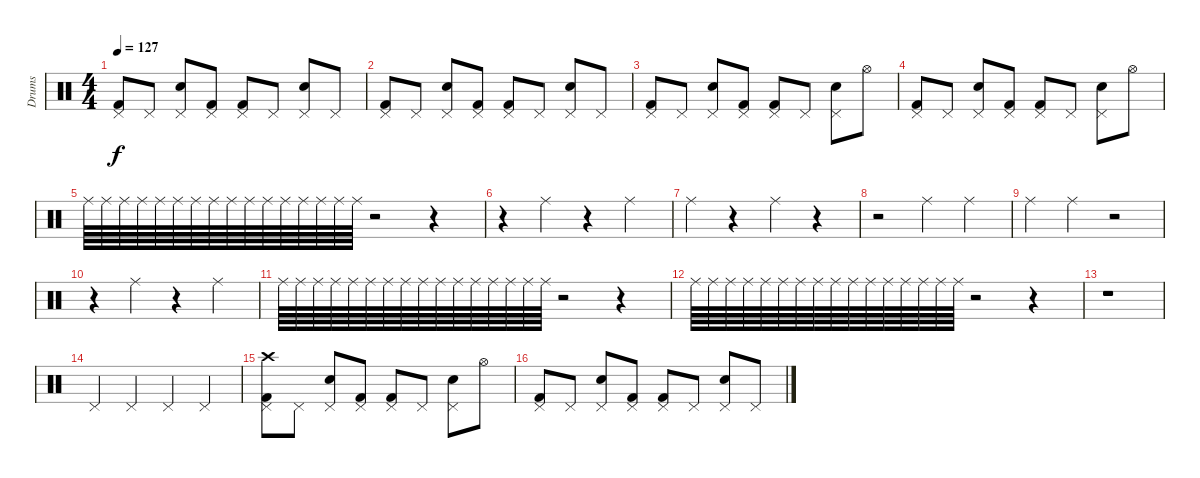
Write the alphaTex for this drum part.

\track ("Drums" "Drums") {instrument percussion}
\staff {score}
\articulation defaults
\ts (4 4)
\tempo 127
\clef neutral
\ks c
("Pedal Hi-Hat (hit)" "Kick (hit) 2").8{dy f} "Pedal Hi-Hat (hit)".8 ("Pedal Hi-Hat (hit)" "Snare (hit) 2").8 ("Pedal Hi-Hat (hit)" "Kick (hit) 2").8 ("Pedal Hi-Hat (hit)" "Kick (hit) 2").8 "Pedal Hi-Hat (hit)".8 ("Pedal Hi-Hat (hit)" "Snare (hit) 2").8 "Pedal Hi-Hat (hit)".8 |
("Pedal Hi-Hat (hit)" "Kick (hit) 2").8 "Pedal Hi-Hat (hit)".8 ("Pedal Hi-Hat (hit)" "Snare (hit) 2").8 ("Pedal Hi-Hat (hit)" "Kick (hit) 2").8 ("Pedal Hi-Hat (hit)" "Kick (hit) 2").8 "Pedal Hi-Hat (hit)".8 ("Pedal Hi-Hat (hit)" "Snare (hit) 2").8 "Pedal Hi-Hat (hit)".8 |
("Pedal Hi-Hat (hit)" "Kick (hit) 2").8 "Pedal Hi-Hat (hit)".8 ("Pedal Hi-Hat (hit)" "Snare (hit) 2").8 ("Pedal Hi-Hat (hit)" "Kick (hit) 2").8 ("Pedal Hi-Hat (hit)" "Kick (hit) 2").8 "Pedal Hi-Hat (hit)".8 ("Pedal Hi-Hat (hit)" "Snare (hit) 2").8 "Hi-Hat (open)".8 |
("Pedal Hi-Hat (hit)" "Kick (hit) 2").8 "Pedal Hi-Hat (hit)".8 ("Pedal Hi-Hat (hit)" "Snare (hit) 2").8 ("Pedal Hi-Hat (hit)" "Kick (hit) 2").8 ("Pedal Hi-Hat (hit)" "Kick (hit) 2").8 "Pedal Hi-Hat (hit)".8 ("Pedal Hi-Hat (hit)" "Snare (hit) 2").8 "Hi-Hat (open)".8 |
"Ride (middle)".64 "Ride (middle)".64 "Ride (middle)".64 "Ride (middle)".64 "Ride (middle)".64 "Ride (middle)".64 "Ride (middle)".64 "Ride (middle)".64 "Ride (middle)".64 "Ride (middle)".64 "Ride (middle)".64 "Ride (middle)".64 "Ride (middle)".64 "Ride (middle)".64 "Ride (middle)".64 "Ride (middle)".64 r.2 r.4 |
r.4 "Ride (middle)".4 r.4 "Ride (middle)".4 |
"Ride (middle)".4 r.4 "Ride (middle)".4 r.4 |
r.2 "Ride (middle)".4 "Ride (middle)".4 |
"Ride (middle)".4 "Ride (middle)".4 r.2 |
r.4 "Ride (middle)".4 r.4 "Ride (middle)".4 |
"Ride (middle)".64 "Ride (middle)".64 "Ride (middle)".64 "Ride (middle)".64 "Ride (middle)".64 "Ride (middle)".64 "Ride (middle)".64 "Ride (middle)".64 "Ride (middle)".64 "Ride (middle)".64 "Ride (middle)".64 "Ride (middle)".64 "Ride (middle)".64 "Ride (middle)".64 "Ride (middle)".64 "Ride (middle)".64 r.2 r.4 |
"Ride (middle)".64 "Ride (middle)".64 "Ride (middle)".64 "Ride (middle)".64 "Ride (middle)".64 "Ride (middle)".64 "Ride (middle)".64 "Ride (middle)".64 "Ride (middle)".64 "Ride (middle)".64 "Ride (middle)".64 "Ride (middle)".64 "Ride (middle)".64 "Ride (middle)".64 "Ride (middle)".64 "Ride (middle)".64 r.2 r.4 |
r.1 |
"Pedal Hi-Hat (hit)".4 "Pedal Hi-Hat (hit)".4 "Pedal Hi-Hat (hit)".4 "Pedal Hi-Hat (hit)".4 |
("Crash high (hit)" "Pedal Hi-Hat (hit)" "Kick (hit) 2").8 "Pedal Hi-Hat (hit)".8 ("Pedal Hi-Hat (hit)" "Snare (hit) 2").8 ("Pedal Hi-Hat (hit)" "Kick (hit) 2").8 ("Pedal Hi-Hat (hit)" "Kick (hit) 2").8 "Pedal Hi-Hat (hit)".8 ("Pedal Hi-Hat (hit)" "Snare (hit) 2").8 "Hi-Hat (open)".8 |
("Pedal Hi-Hat (hit)" "Kick (hit) 2").8 "Pedal Hi-Hat (hit)".8 ("Pedal Hi-Hat (hit)" "Snare (hit) 2").8 ("Pedal Hi-Hat (hit)" "Kick (hit) 2").8 ("Pedal Hi-Hat (hit)" "Kick (hit) 2").8 "Pedal Hi-Hat (hit)".8 ("Pedal Hi-Hat (hit)" "Snare (hit) 2").8 "Pedal Hi-Hat (hit)".8
